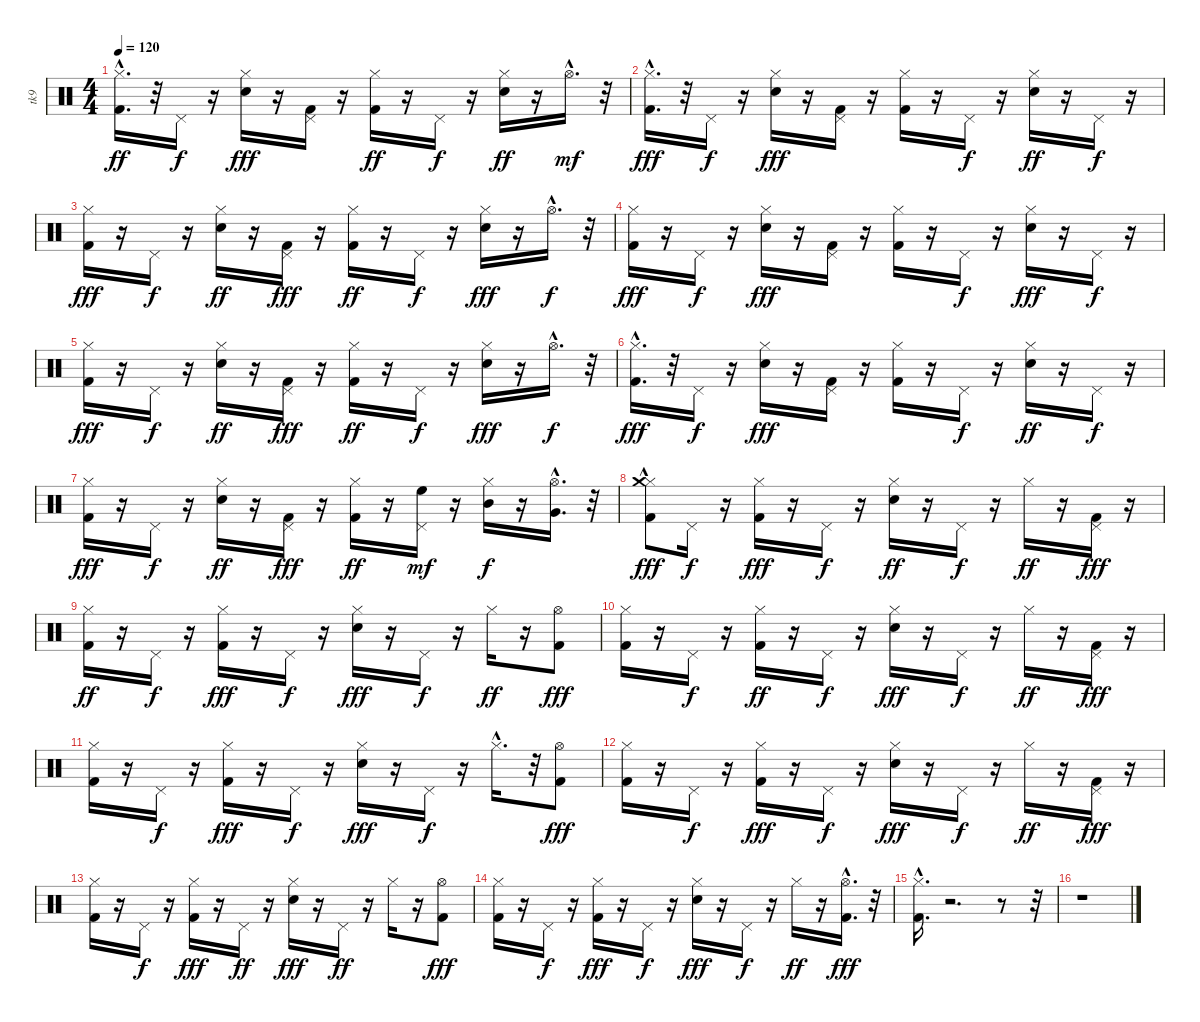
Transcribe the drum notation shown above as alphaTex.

\track ("tk9" "tk9") {instrument percussion}
\staff {score}
\articulation defaults
\ts (4 4)
\tempo 120
\clef neutral
\ks c
("Kick (hit) 2"{hac} "Hi-Hat (closed)"{hac}).16{d dy ff} r.32 "Pedal Hi-Hat (hit)".16{dy f} r.16 ("Hi-Hat (closed)" "Snare (hit) 2").16{dy fff} r.16 ("Pedal Hi-Hat (hit)" "Kick (hit) 2").16 r.16 ("Kick (hit) 2" "Hi-Hat (closed)").16{dy ff} r.16 "Pedal Hi-Hat (hit)".16{dy f} r.16 ("Snare (hit) 2" "Hi-Hat (closed)").16{dy ff} r.16 "Hi-Hat (open)"{hac}.16{d dy mf} r.32 |
("Hi-Hat (closed)"{hac} "Kick (hit) 2"{hac}).16{d dy fff} r.32 "Pedal Hi-Hat (hit)".16{dy f} r.16 ("Hi-Hat (closed)" "Snare (hit) 2").16{dy fff} r.16 ("Pedal Hi-Hat (hit)" "Kick (hit) 2").16 r.16 ("Hi-Hat (closed)" "Kick (hit) 2").16 r.16 "Pedal Hi-Hat (hit)".16{dy f} r.16 ("Snare (hit) 2" "Hi-Hat (closed)").16{dy ff} r.16 "Pedal Hi-Hat (hit)".16{dy f} r.16 |
("Hi-Hat (closed)" "Kick (hit) 2").16{dy fff} r.16 "Pedal Hi-Hat (hit)".16{dy f} r.16 ("Snare (hit) 2" "Hi-Hat (closed)").16{dy ff} r.16 ("Kick (hit) 2" "Pedal Hi-Hat (hit)").16{dy fff} r.16 ("Kick (hit) 2" "Hi-Hat (closed)").16{dy ff} r.16 "Pedal Hi-Hat (hit)".16{dy f} r.16 ("Snare (hit) 2" "Hi-Hat (closed)").16{dy fff} r.16 "Hi-Hat (open)"{hac}.16{d dy f} r.32 |
("Hi-Hat (closed)" "Kick (hit) 2").16{dy fff} r.16 "Pedal Hi-Hat (hit)".16{dy f} r.16 ("Hi-Hat (closed)" "Snare (hit) 2").16{dy fff} r.16 ("Pedal Hi-Hat (hit)" "Kick (hit) 2").16 r.16 ("Hi-Hat (closed)" "Kick (hit) 2").16 r.16 "Pedal Hi-Hat (hit)".16{dy f} r.16 ("Hi-Hat (closed)" "Snare (hit) 2").16{dy fff} r.16 "Pedal Hi-Hat (hit)".16{dy f} r.16 |
("Hi-Hat (closed)" "Kick (hit) 2").16{dy fff} r.16 "Pedal Hi-Hat (hit)".16{dy f} r.16 ("Snare (hit) 2" "Hi-Hat (closed)").16{dy ff} r.16 ("Kick (hit) 2" "Pedal Hi-Hat (hit)").16{dy fff} r.16 ("Kick (hit) 2" "Hi-Hat (closed)").16{dy ff} r.16 "Pedal Hi-Hat (hit)".16{dy f} r.16 ("Snare (hit) 2" "Hi-Hat (closed)").16{dy fff} r.16 "Hi-Hat (open)"{hac}.16{d dy f} r.32 |
("Hi-Hat (closed)"{hac} "Kick (hit) 2"{hac}).16{d dy fff} r.32 "Pedal Hi-Hat (hit)".16{dy f} r.16 ("Hi-Hat (closed)" "Snare (hit) 2").16{dy fff} r.16 ("Pedal Hi-Hat (hit)" "Kick (hit) 2").16 r.16 ("Hi-Hat (closed)" "Kick (hit) 2").16 r.16 "Pedal Hi-Hat (hit)".16{dy f} r.16 ("Snare (hit) 2" "Hi-Hat (closed)").16{dy ff} r.16 "Pedal Hi-Hat (hit)".16{dy f} r.16 |
("Hi-Hat (closed)" "Kick (hit) 2").16{dy fff} r.16 "Pedal Hi-Hat (hit)".16{dy f} r.16 ("Snare (hit) 2" "Hi-Hat (closed)").16{dy ff} r.16 ("Kick (hit) 2" "Pedal Hi-Hat (hit)").16{dy fff} r.16 ("Kick (hit) 2" "Hi-Hat (closed)").16{dy ff} r.16 ("Pedal Hi-Hat (hit)" "High Floor Tom (hit)").16{dy mf} r.16 ("Hi-Hat (closed)" "Mid Tom (hit)").16{dy f} r.16 ("Hi-Hat (open)"{hac} "Very Low Tom (hit)").16{d} r.32 |
("Hi-Hat (closed)" "Crash medium (hit)"{hac} "Kick (hit) 2").8{dy fff} "Pedal Hi-Hat (hit)".16{dy f} r.16 ("Hi-Hat (closed)" "Kick (hit) 2").16{dy fff} r.16 "Pedal Hi-Hat (hit)".16{dy f} r.16 ("Snare (hit) 2" "Hi-Hat (closed)").16{dy ff} r.16 "Pedal Hi-Hat (hit)".16{dy f} r.16 "Hi-Hat (closed)".16{dy ff} r.16 ("Kick (hit) 2" "Pedal Hi-Hat (hit)").16{dy fff} r.16 |
("Kick (hit) 2" "Hi-Hat (closed)").16{dy ff} r.16 "Pedal Hi-Hat (hit)".16{dy f} r.16 ("Hi-Hat (closed)" "Kick (hit) 2").16{dy fff} r.16 "Pedal Hi-Hat (hit)".16{dy f} r.16 ("Hi-Hat (closed)" "Snare (hit) 2").16{dy fff} r.16 "Pedal Hi-Hat (hit)".16{dy f} r.16 "Hi-Hat (closed)".16{dy ff} r.16 ("Hi-Hat (open)" "Kick (hit) 2").8{dy fff} |
("Hi-Hat (closed)" "Kick (hit) 2").16 r.16 "Pedal Hi-Hat (hit)".16{dy f} r.16 ("Kick (hit) 2" "Hi-Hat (closed)").16{dy ff} r.16 "Pedal Hi-Hat (hit)".16{dy f} r.16 ("Hi-Hat (closed)" "Snare (hit) 2").16{dy fff} r.16 "Pedal Hi-Hat (hit)".16{dy f} r.16 "Hi-Hat (closed)".16{dy ff} r.16 ("Pedal Hi-Hat (hit)" "Kick (hit) 2").16{dy fff} r.16 |
("Hi-Hat (closed)" "Kick (hit) 2").16 r.16 "Pedal Hi-Hat (hit)".16{dy f} r.16 ("Hi-Hat (closed)" "Kick (hit) 2").16{dy fff} r.16 "Pedal Hi-Hat (hit)".16{dy f} r.16 ("Hi-Hat (closed)" "Snare (hit) 2").16{dy fff} r.16 "Pedal Hi-Hat (hit)".16{dy f} r.16 "Hi-Hat (closed)"{hac}.16{d} r.32 ("Kick (hit) 2" "Hi-Hat (open)").8{dy fff} |
("Hi-Hat (closed)" "Kick (hit) 2").16 r.16 "Pedal Hi-Hat (hit)".16{dy f} r.16 ("Hi-Hat (closed)" "Kick (hit) 2").16{dy fff} r.16 "Pedal Hi-Hat (hit)".16{dy f} r.16 ("Hi-Hat (closed)" "Snare (hit) 2").16{dy fff} r.16 "Pedal Hi-Hat (hit)".16{dy f} r.16 "Hi-Hat (closed)".16{dy ff} r.16 ("Pedal Hi-Hat (hit)" "Kick (hit) 2").16{dy fff} r.16 |
("Hi-Hat (closed)" "Kick (hit) 2").16 r.16 "Pedal Hi-Hat (hit)".16{dy f} r.16 ("Hi-Hat (closed)" "Kick (hit) 2").16{dy fff} r.16 "Pedal Hi-Hat (hit)".16{dy ff} r.16 ("Hi-Hat (closed)" "Snare (hit) 2").16{dy fff} r.16 "Pedal Hi-Hat (hit)".16{dy ff} r.16 "Hi-Hat (closed)".16 r.16 ("Hi-Hat (open)" "Kick (hit) 2").8{dy fff} |
("Hi-Hat (closed)" "Kick (hit) 2").16 r.16 "Pedal Hi-Hat (hit)".16{dy f} r.16 ("Hi-Hat (closed)" "Kick (hit) 2").16{dy fff} r.16 "Pedal Hi-Hat (hit)".16{dy f} r.16 ("Hi-Hat (closed)" "Snare (hit) 2").16{dy fff} r.16 "Pedal Hi-Hat (hit)".16{dy f} r.16 "Hi-Hat (closed)".16{dy ff} r.16 ("Hi-Hat (open)"{hac} "Kick (hit) 2").16{d dy fff} r.32 |
("Hi-Hat (closed)"{hac} "Kick (hit) 2").16{d} r.2{d} r.8 r.32 |
r.1
